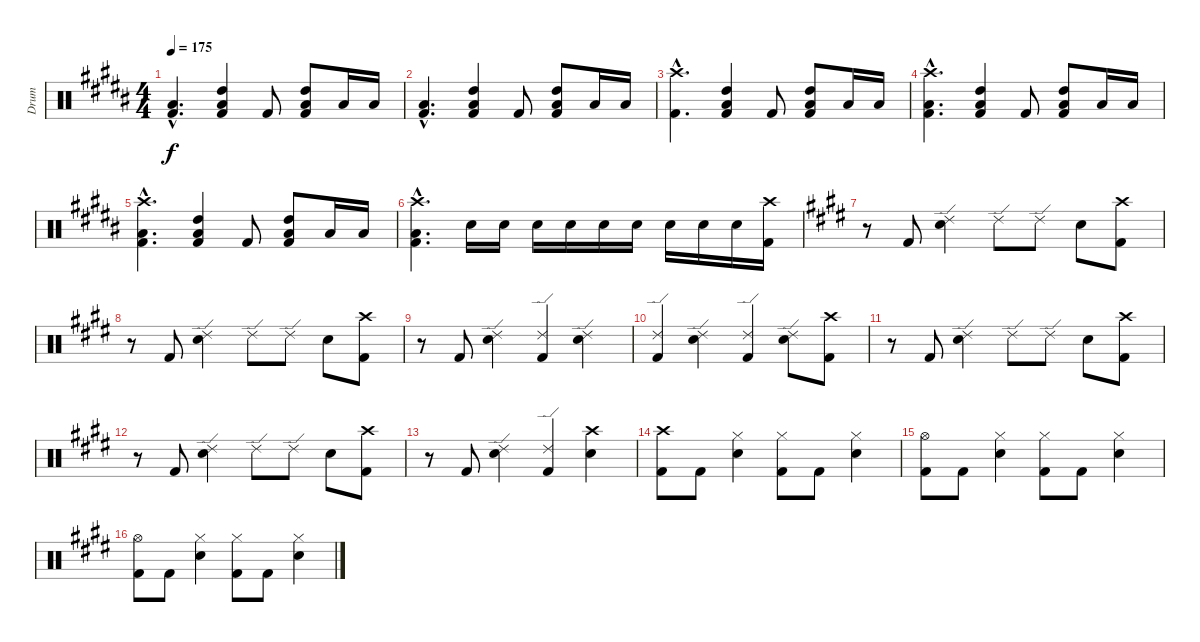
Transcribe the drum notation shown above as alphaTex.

\track ("Drum" "Drum") {instrument percussion}
\staff {score}
\articulation defaults
\ts (4 4)
\tempo 175
\clef neutral
\ks b
("Kick (hit) 2"{hac} "Low Tom (hit)"{hac}).4{d dy f} ("Low Floor Tom (hit)" "Kick (hit) 2" "High Tom (hit)").4 "Kick (hit) 2".8 ("Low Floor Tom (hit)" "Kick (hit) 2" "High Tom (hit)").8 "Low Tom (hit)".16 "Low Tom (hit)".16 |
("Kick (hit) 2"{hac} "Low Tom (hit)"{hac}).4{d} ("Low Floor Tom (hit)" "Kick (hit) 2" "High Tom (hit)").4 "Kick (hit) 2".8 ("Low Floor Tom (hit)" "Kick (hit) 2" "High Tom (hit)").8 "Low Tom (hit)".16 "Low Tom (hit)".16 |
("Crash high (hit)"{hac} "Kick (hit) 2"{hac}).4{d} ("Low Floor Tom (hit)" "Kick (hit) 2" "High Tom (hit)").4 "Kick (hit) 2".8 ("Low Floor Tom (hit)" "Kick (hit) 2" "High Tom (hit)").8 "Low Tom (hit)".16 "Low Tom (hit)".16 |
("Crash high (hit)"{hac} "Kick (hit) 2"{hac} "Low Tom (hit)"{hac}).4{d} ("Low Floor Tom (hit)" "Kick (hit) 2" "High Tom (hit)").4 "Kick (hit) 2".8 ("Low Floor Tom (hit)" "Kick (hit) 2" "High Tom (hit)").8 "Low Tom (hit)".16 "Low Tom (hit)".16 |
("Crash high (hit)"{hac} "Kick (hit) 2"{hac} "Low Tom (hit)"{hac}).4{d} ("Low Floor Tom (hit)" "Kick (hit) 2" "High Tom (hit)").4 "Kick (hit) 2".8 ("Low Floor Tom (hit)" "Kick (hit) 2" "High Tom (hit)").8 "Low Tom (hit)".16 "Low Tom (hit)".16 |
("Crash high (hit)"{hac} "Kick (hit) 2"{hac} "Low Tom (hit)"{hac}).4{d} "Snare (hit) 2".16 "Snare (hit) 2".16 "Snare (hit) 2".16 "Snare (hit) 2".16 "Snare (hit) 2".16 "Snare (hit) 2".16 "Snare (hit) 2".16 "Snare (hit) 2".16 "Snare (hit) 2".16 ("Crash high (hit)" "Kick (hit) 2").16 |
\ks e
r.8 "Kick (hit) 2".8 ("Ride (edge) 2" "Snare (hit) 2").4 "Ride (edge) 2".8 "Ride (edge) 2".8 "Snare (hit) 2".8 ("Crash high (hit)" "Kick (hit) 2").8 |
r.8 "Kick (hit) 2".8 ("Ride (edge) 2" "Snare (hit) 2").4 "Ride (edge) 2".8 "Ride (edge) 2".8 "Snare (hit) 2".8 ("Crash high (hit)" "Kick (hit) 2").8 |
r.8 "Kick (hit) 2".8 ("Ride (edge) 2" "Snare (hit) 2").4 ("Ride (edge) 2" "Kick (hit) 2").4 ("Ride (edge) 2" "Snare (hit) 2").4 |
("Ride (edge) 2" "Kick (hit) 2").4 ("Ride (edge) 2" "Snare (hit) 2").4 ("Ride (edge) 2" "Kick (hit) 2").4 ("Ride (edge) 2" "Snare (hit) 2").8 ("Crash high (hit)" "Kick (hit) 2").8 |
r.8 "Kick (hit) 2".8 ("Ride (edge) 2" "Snare (hit) 2").4 "Ride (edge) 2".8 "Ride (edge) 2".8 "Snare (hit) 2".8 ("Crash high (hit)" "Kick (hit) 2").8 |
r.8 "Kick (hit) 2".8 ("Ride (edge) 2" "Snare (hit) 2").4 "Ride (edge) 2".8 "Ride (edge) 2".8 "Snare (hit) 2".8 ("Crash high (hit)" "Kick (hit) 2").8 |
r.8 "Kick (hit) 2".8 ("Ride (edge) 2" "Snare (hit) 2").4 ("Ride (edge) 2" "Kick (hit) 2").4 ("Crash high (hit)" "Snare (hit) 2").4 |
("Crash high (hit)" "Kick (hit) 2").8 "Kick (hit) 2".8 ("Hi-Hat (closed)" "Snare (hit) 2").4 ("Hi-Hat (closed)" "Kick (hit) 2").8 "Kick (hit) 2".8 ("Hi-Hat (closed)" "Snare (hit) 2").4 |
("Hi-Hat (open)" "Kick (hit) 2").8 "Kick (hit) 2".8 ("Hi-Hat (closed)" "Snare (hit) 2").4 ("Hi-Hat (closed)" "Kick (hit) 2").8 "Kick (hit) 2".8 ("Hi-Hat (closed)" "Snare (hit) 2").4 |
("Hi-Hat (open)" "Kick (hit) 2").8 "Kick (hit) 2".8 ("Hi-Hat (closed)" "Snare (hit) 2").4 ("Hi-Hat (closed)" "Kick (hit) 2").8 "Kick (hit) 2".8 ("Hi-Hat (closed)" "Snare (hit) 2").4
